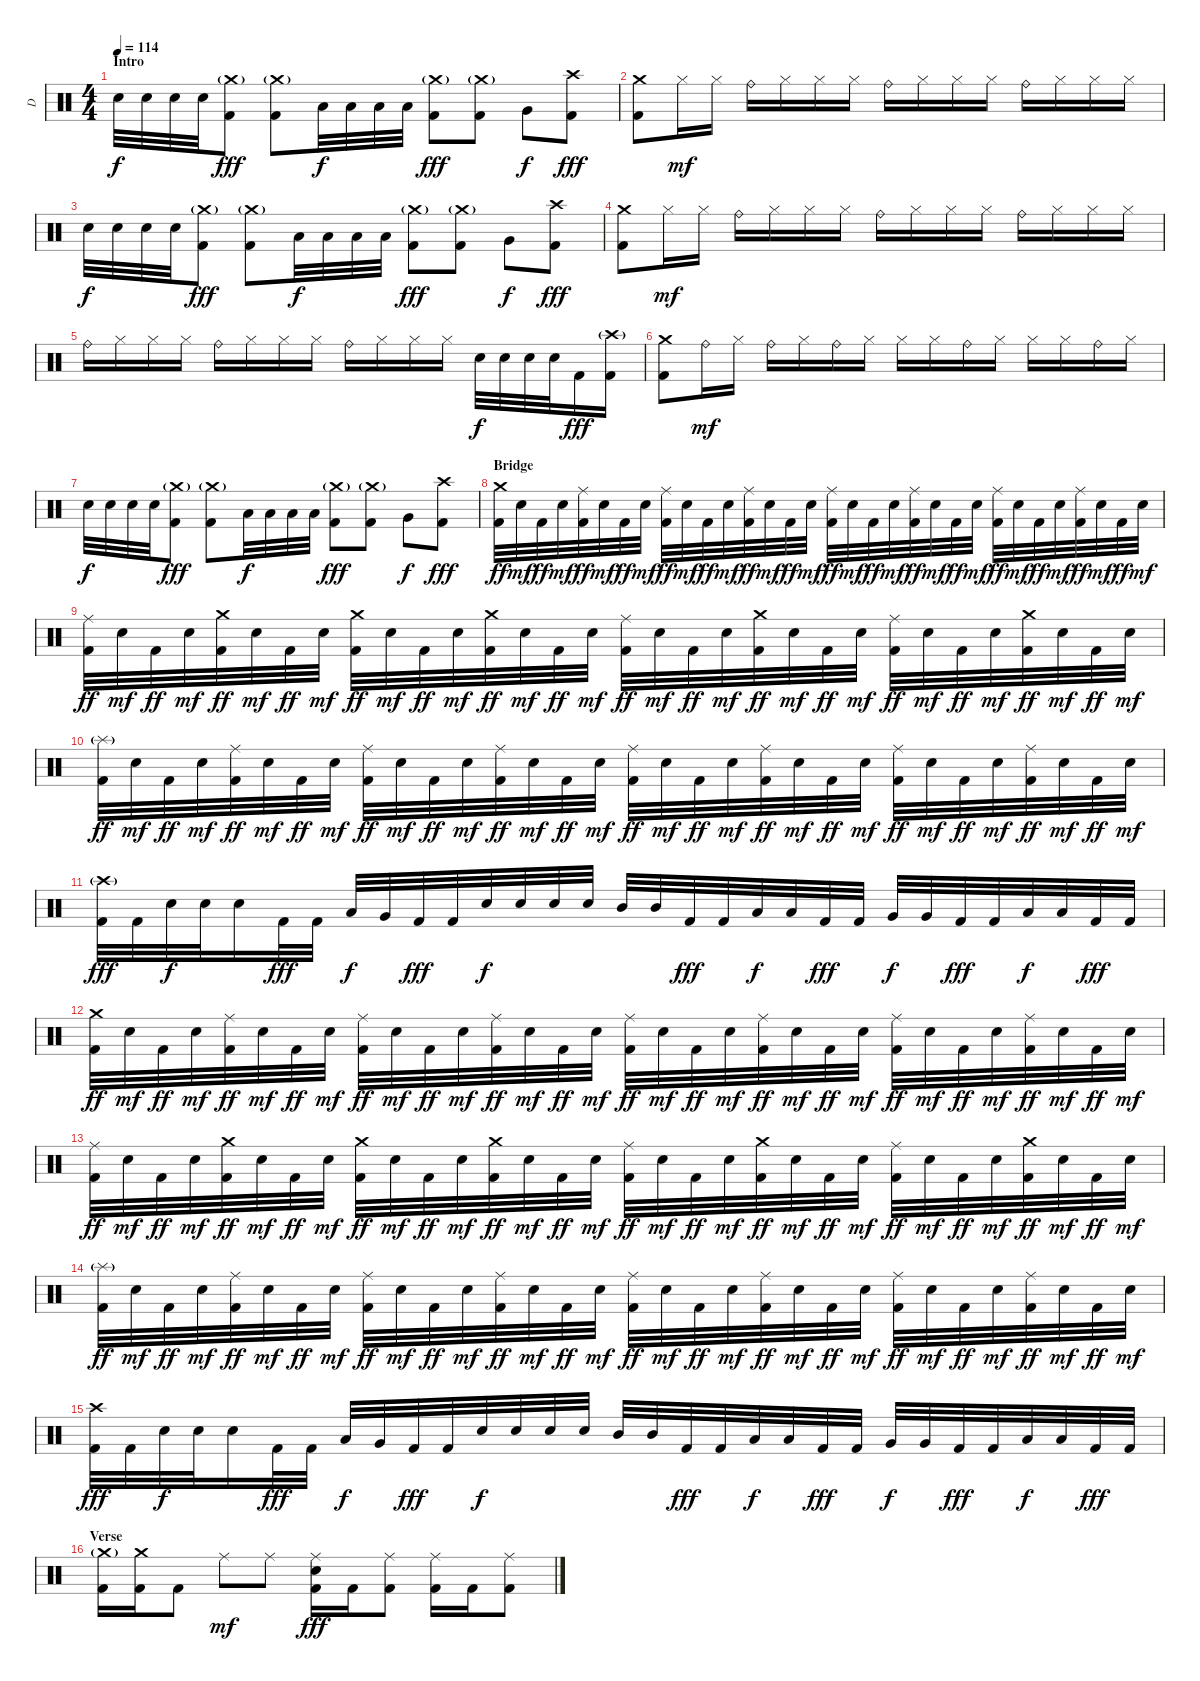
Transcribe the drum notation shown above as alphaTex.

\track ("D" "D") {instrument percussion}
\staff {score}
\articulation defaults
\ts (4 4)
\section ("" "Intro")
\tempo 114
\clef neutral
\ks c "Electric Snare (hit)".32{dy f} "Electric Snare (hit)".32 "Electric Snare (hit)".32 "Electric Snare (hit)".32
("Crash medium (hit)"{g} "Kick (hit) 2").8{dy fff} ("Crash medium (hit)"{g} "Kick (hit) 2").8 "Low Tom (hit)".32{dy f} "Low Tom (hit)".32 "Low Tom (hit)".32 "Low Tom (hit)".32 ("Crash medium (hit)"{g} "Kick (hit) 2").8{dy fff} ("Crash medium (hit)"{g} "Kick (hit) 2").8 "Very Low Tom (hit)".8{dy f} ("Crash high (hit)" "Kick (hit) 2").8{dy fff} |
("Crash medium (hit)" "Kick (hit) 2").8 "Hi-Hat (closed)".16{dy mf} "Hi-Hat (closed)".16 "Ride (bell)".16 "Hi-Hat (closed)".16 "Hi-Hat (closed)".16 "Hi-Hat (closed)".16 "Ride (bell)".16 "Hi-Hat (closed)".16 "Hi-Hat (closed)".16 "Hi-Hat (closed)".16 "Ride (bell)".16 "Hi-Hat (closed)".16 "Hi-Hat (closed)".16 "Hi-Hat (closed)".16 |
"Electric Snare (hit)".32{dy f} "Electric Snare (hit)".32 "Electric Snare (hit)".32 "Electric Snare (hit)".32 ("Crash medium (hit)"{g} "Kick (hit) 2").8{dy fff} ("Crash medium (hit)"{g} "Kick (hit) 2").8 "Low Tom (hit)".32{dy f} "Low Tom (hit)".32 "Low Tom (hit)".32 "Low Tom (hit)".32 ("Crash medium (hit)"{g} "Kick (hit) 2").8{dy fff} ("Crash medium (hit)"{g} "Kick (hit) 2").8 "Very Low Tom (hit)".8{dy f} ("Crash high (hit)" "Kick (hit) 2").8{dy fff} |
("Crash medium (hit)" "Kick (hit) 2").8 "Hi-Hat (closed)".16{dy mf} "Hi-Hat (closed)".16 "Ride (bell)".16 "Hi-Hat (closed)".16 "Hi-Hat (closed)".16 "Hi-Hat (closed)".16 "Ride (bell)".16 "Hi-Hat (closed)".16 "Hi-Hat (closed)".16 "Hi-Hat (closed)".16 "Ride (bell)".16 "Hi-Hat (closed)".16 "Hi-Hat (closed)".16 "Hi-Hat (closed)".16 |
"Ride (bell)".16 "Hi-Hat (closed)".16 "Hi-Hat (closed)".16 "Hi-Hat (closed)".16 "Ride (bell)".16 "Hi-Hat (closed)".16 "Hi-Hat (closed)".16 "Hi-Hat (closed)".16 "Ride (bell)".16 "Hi-Hat (closed)".16 "Hi-Hat (closed)".16 "Hi-Hat (closed)".16 "Electric Snare (hit)".32{dy f} "Electric Snare (hit)".32 "Electric Snare (hit)".32 "Electric Snare (hit)".32 "Kick (hit) 2".16{dy fff} ("Crash high (hit)"{g} "Kick (hit) 2").16 |
("Crash medium (hit)" "Kick (hit) 2").8 "Ride (bell)".16{dy mf} "Hi-Hat (closed)".16 "Ride (bell)".16 "Hi-Hat (closed)".16 "Ride (bell)".16 "Hi-Hat (closed)".16 "Hi-Hat (closed)".16 "Hi-Hat (closed)".16 "Ride (bell)".16 "Hi-Hat (closed)".16 "Hi-Hat (closed)".16 "Hi-Hat (closed)".16 "Ride (bell)".16 "Hi-Hat (closed)".16 |
"Electric Snare (hit)".32{dy f} "Electric Snare (hit)".32 "Electric Snare (hit)".32 "Electric Snare (hit)".32 ("Crash medium (hit)"{g} "Kick (hit) 2").8{dy fff} ("Crash medium (hit)"{g} "Kick (hit) 2").8 "Low Tom (hit)".32{dy f} "Low Tom (hit)".32 "Low Tom (hit)".32 "Low Tom (hit)".32 ("Crash medium (hit)"{g} "Kick (hit) 2").8{dy fff} ("Crash medium (hit)"{g} "Kick (hit) 2").8 "Very Low Tom (hit)".8{dy f} ("Crash high (hit)" "Kick (hit) 2").8{dy fff} |
\section ("" "Bridge")
("Crash medium (hit)" "Kick (hit) 2").32{dy ff} "Electric Snare (hit)".32{dy mf} "Kick (hit) 2".32{dy ff} "Electric Snare (hit)".32{dy mf} ("Ride (middle)" "Kick (hit) 2").32{dy ff} "Electric Snare (hit)".32{dy mf} "Kick (hit) 2".32{dy ff} "Electric Snare (hit)".32{dy mf} ("Ride (middle)" "Kick (hit) 2").32{dy ff} "Electric Snare (hit)".32{dy mf} "Kick (hit) 2".32{dy ff} "Electric Snare (hit)".32{dy mf} ("Ride (middle)" "Kick (hit) 2").32{dy ff} "Electric Snare (hit)".32{dy mf} "Kick (hit) 2".32{dy ff} "Electric Snare (hit)".32{dy mf} ("Ride (middle)" "Kick (hit) 2").32{dy ff} "Electric Snare (hit)".32{dy mf} "Kick (hit) 2".32{dy ff} "Electric Snare (hit)".32{dy mf} ("Ride (middle)" "Kick (hit) 2").32{dy ff} "Electric Snare (hit)".32{dy mf} "Kick (hit) 2".32{dy ff} "Electric Snare (hit)".32{dy mf} ("Ride (middle)" "Kick (hit) 2").32{dy ff} "Electric Snare (hit)".32{dy mf} "Kick (hit) 2".32{dy ff} "Electric Snare (hit)".32{dy mf} ("Ride (middle)" "Kick (hit) 2").32{dy ff} "Electric Snare (hit)".32{dy mf} "Kick (hit) 2".32{dy ff} "Electric Snare (hit)".32{dy mf} |
("Ride (middle)" "Kick (hit) 2").32{dy ff} "Electric Snare (hit)".32{dy mf} "Kick (hit) 2".32{dy ff} "Electric Snare (hit)".32{dy mf} ("Crash medium (hit)" "Kick (hit) 2").32{dy ff} "Electric Snare (hit)".32{dy mf} "Kick (hit) 2".32{dy ff} "Electric Snare (hit)".32{dy mf} ("Crash medium (hit)" "Kick (hit) 2").32{dy ff} "Electric Snare (hit)".32{dy mf} "Kick (hit) 2".32{dy ff} "Electric Snare (hit)".32{dy mf} ("Crash medium (hit)" "Kick (hit) 2").32{dy ff} "Electric Snare (hit)".32{dy mf} "Kick (hit) 2".32{dy ff} "Electric Snare (hit)".32{dy mf} ("Ride (middle)" "Kick (hit) 2").32{dy ff} "Electric Snare (hit)".32{dy mf} "Kick (hit) 2".32{dy ff} "Electric Snare (hit)".32{dy mf} ("Crash medium (hit)" "Kick (hit) 2").32{dy ff} "Electric Snare (hit)".32{dy mf} "Kick (hit) 2".32{dy ff} "Electric Snare (hit)".32{dy mf} ("Ride (middle)" "Kick (hit) 2").32{dy ff} "Electric Snare (hit)".32{dy mf} "Kick (hit) 2".32{dy ff} "Electric Snare (hit)".32{dy mf} ("Crash medium (hit)" "Kick (hit) 2").32{dy ff} "Electric Snare (hit)".32{dy mf} "Kick (hit) 2".32{dy ff} "Electric Snare (hit)".32{dy mf} |
("Splash (hit)"{g} "Kick (hit) 2").32{dy ff} "Electric Snare (hit)".32{dy mf} "Kick (hit) 2".32{dy ff} "Electric Snare (hit)".32{dy mf} ("Ride (middle)" "Kick (hit) 2").32{dy ff} "Electric Snare (hit)".32{dy mf} "Kick (hit) 2".32{dy ff} "Electric Snare (hit)".32{dy mf} ("Ride (middle)" "Kick (hit) 2").32{dy ff} "Electric Snare (hit)".32{dy mf} "Kick (hit) 2".32{dy ff} "Electric Snare (hit)".32{dy mf} ("Ride (middle)" "Kick (hit) 2").32{dy ff} "Electric Snare (hit)".32{dy mf} "Kick (hit) 2".32{dy ff} "Electric Snare (hit)".32{dy mf} ("Ride (middle)" "Kick (hit) 2").32{dy ff} "Electric Snare (hit)".32{dy mf} "Kick (hit) 2".32{dy ff} "Electric Snare (hit)".32{dy mf} ("Ride (middle)" "Kick (hit) 2").32{dy ff} "Electric Snare (hit)".32{dy mf} "Kick (hit) 2".32{dy ff} "Electric Snare (hit)".32{dy mf} ("Ride (middle)" "Kick (hit) 2").32{dy ff} "Electric Snare (hit)".32{dy mf} "Kick (hit) 2".32{dy ff} "Electric Snare (hit)".32{dy mf} ("Ride (middle)" "Kick (hit) 2").32{dy ff} "Electric Snare (hit)".32{dy mf} "Kick (hit) 2".32{dy ff} "Electric Snare (hit)".32{dy mf} |
("Crash high (hit)"{g} "Kick (hit) 2").32{dy fff} "Kick (hit) 2".32 "Electric Snare (hit)".32{dy f} "Electric Snare (hit)".32 "Electric Snare (hit)".16 "Kick (hit) 2".32{dy fff} "Kick (hit) 2".32 "Low Tom (hit)".32{dy f} "Very Low Tom (hit)".32 "Kick (hit) 2".32{dy fff} "Kick (hit) 2".32 "Electric Snare (hit)".32{dy f} "Electric Snare (hit)".32 "Electric Snare (hit)".32 "Electric Snare (hit)".32 "Mid Tom (hit)".32 "Mid Tom (hit)".32 "Kick (hit) 2".32{dy fff} "Kick (hit) 2".32 "Low Tom (hit)".32{dy f} "Low Tom (hit)".32 "Kick (hit) 2".32{dy fff} "Kick (hit) 2".32 "Very Low Tom (hit)".32{dy f} "Very Low Tom (hit)".32 "Kick (hit) 2".32{dy fff} "Kick (hit) 2".32 "Low Floor Tom (hit)".32{dy f} "Low Floor Tom (hit)".32 "Kick (hit) 2".32{dy fff} "Kick (hit) 2".32 |
("Crash medium (hit)" "Kick (hit) 2").32{dy ff} "Electric Snare (hit)".32{dy mf} "Kick (hit) 2".32{dy ff} "Electric Snare (hit)".32{dy mf} ("Ride (middle)" "Kick (hit) 2").32{dy ff} "Electric Snare (hit)".32{dy mf} "Kick (hit) 2".32{dy ff} "Electric Snare (hit)".32{dy mf} ("Ride (middle)" "Kick (hit) 2").32{dy ff} "Electric Snare (hit)".32{dy mf} "Kick (hit) 2".32{dy ff} "Electric Snare (hit)".32{dy mf} ("Ride (middle)" "Kick (hit) 2").32{dy ff} "Electric Snare (hit)".32{dy mf} "Kick (hit) 2".32{dy ff} "Electric Snare (hit)".32{dy mf} ("Ride (middle)" "Kick (hit) 2").32{dy ff} "Electric Snare (hit)".32{dy mf} "Kick (hit) 2".32{dy ff} "Electric Snare (hit)".32{dy mf} ("Ride (middle)" "Kick (hit) 2").32{dy ff} "Electric Snare (hit)".32{dy mf} "Kick (hit) 2".32{dy ff} "Electric Snare (hit)".32{dy mf} ("Ride (middle)" "Kick (hit) 2").32{dy ff} "Electric Snare (hit)".32{dy mf} "Kick (hit) 2".32{dy ff} "Electric Snare (hit)".32{dy mf} ("Ride (middle)" "Kick (hit) 2").32{dy ff} "Electric Snare (hit)".32{dy mf} "Kick (hit) 2".32{dy ff} "Electric Snare (hit)".32{dy mf} |
("Ride (middle)" "Kick (hit) 2").32{dy ff} "Electric Snare (hit)".32{dy mf} "Kick (hit) 2".32{dy ff} "Electric Snare (hit)".32{dy mf} ("Crash medium (hit)" "Kick (hit) 2").32{dy ff} "Electric Snare (hit)".32{dy mf} "Kick (hit) 2".32{dy ff} "Electric Snare (hit)".32{dy mf} ("Crash medium (hit)" "Kick (hit) 2").32{dy ff} "Electric Snare (hit)".32{dy mf} "Kick (hit) 2".32{dy ff} "Electric Snare (hit)".32{dy mf} ("Crash medium (hit)" "Kick (hit) 2").32{dy ff} "Electric Snare (hit)".32{dy mf} "Kick (hit) 2".32{dy ff} "Electric Snare (hit)".32{dy mf} ("Ride (middle)" "Kick (hit) 2").32{dy ff} "Electric Snare (hit)".32{dy mf} "Kick (hit) 2".32{dy ff} "Electric Snare (hit)".32{dy mf} ("Crash medium (hit)" "Kick (hit) 2").32{dy ff} "Electric Snare (hit)".32{dy mf} "Kick (hit) 2".32{dy ff} "Electric Snare (hit)".32{dy mf} ("Ride (middle)" "Kick (hit) 2").32{dy ff} "Electric Snare (hit)".32{dy mf} "Kick (hit) 2".32{dy ff} "Electric Snare (hit)".32{dy mf} ("Crash medium (hit)" "Kick (hit) 2").32{dy ff} "Electric Snare (hit)".32{dy mf} "Kick (hit) 2".32{dy ff} "Electric Snare (hit)".32{dy mf} |
("Splash (hit)"{g} "Kick (hit) 2").32{dy ff} "Electric Snare (hit)".32{dy mf} "Kick (hit) 2".32{dy ff} "Electric Snare (hit)".32{dy mf} ("Ride (middle)" "Kick (hit) 2").32{dy ff} "Electric Snare (hit)".32{dy mf} "Kick (hit) 2".32{dy ff} "Electric Snare (hit)".32{dy mf} ("Ride (middle)" "Kick (hit) 2").32{dy ff} "Electric Snare (hit)".32{dy mf} "Kick (hit) 2".32{dy ff} "Electric Snare (hit)".32{dy mf} ("Ride (middle)" "Kick (hit) 2").32{dy ff} "Electric Snare (hit)".32{dy mf} "Kick (hit) 2".32{dy ff} "Electric Snare (hit)".32{dy mf} ("Ride (middle)" "Kick (hit) 2").32{dy ff} "Electric Snare (hit)".32{dy mf} "Kick (hit) 2".32{dy ff} "Electric Snare (hit)".32{dy mf} ("Ride (middle)" "Kick (hit) 2").32{dy ff} "Electric Snare (hit)".32{dy mf} "Kick (hit) 2".32{dy ff} "Electric Snare (hit)".32{dy mf} ("Ride (middle)" "Kick (hit) 2").32{dy ff} "Electric Snare (hit)".32{dy mf} "Kick (hit) 2".32{dy ff} "Electric Snare (hit)".32{dy mf} ("Ride (middle)" "Kick (hit) 2").32{dy ff} "Electric Snare (hit)".32{dy mf} "Kick (hit) 2".32{dy ff} "Electric Snare (hit)".32{dy mf} |
("Crash high (hit)" "Kick (hit) 2").32{dy fff} "Kick (hit) 2".32 "Electric Snare (hit)".32{dy f} "Electric Snare (hit)".32 "Electric Snare (hit)".16 "Kick (hit) 2".32{dy fff} "Kick (hit) 2".32 "Low Tom (hit)".32{dy f} "Very Low Tom (hit)".32 "Kick (hit) 2".32{dy fff} "Kick (hit) 2".32 "Electric Snare (hit)".32{dy f} "Electric Snare (hit)".32 "Electric Snare (hit)".32 "Electric Snare (hit)".32 "Mid Tom (hit)".32 "Mid Tom (hit)".32 "Kick (hit) 2".32{dy fff} "Kick (hit) 2".32 "Low Tom (hit)".32{dy f} "Low Tom (hit)".32 "Kick (hit) 2".32{dy fff} "Kick (hit) 2".32 "Very Low Tom (hit)".32{dy f} "Very Low Tom (hit)".32 "Kick (hit) 2".32{dy fff} "Kick (hit) 2".32 "Low Floor Tom (hit)".32{dy f} "Low Floor Tom (hit)".32 "Kick (hit) 2".32{dy fff} "Kick (hit) 2".32 |
\section ("" "Verse")
("Crash medium (hit)"{g} "Kick (hit) 2").16 ("Crash medium (hit)" "Kick (hit) 2").16 "Kick (hit) 2".8 "Ride (middle)".8{dy mf} "Ride (middle)".8 ("Ride (middle)" "Electric Snare (hit)" "Kick (hit) 2").16{dy fff} "Kick (hit) 2".16 ("Ride (middle)" "Kick (hit) 2").8 ("Ride (middle)" "Kick (hit) 2").16 "Kick (hit) 2".16 ("Ride (middle)" "Kick (hit) 2").8
